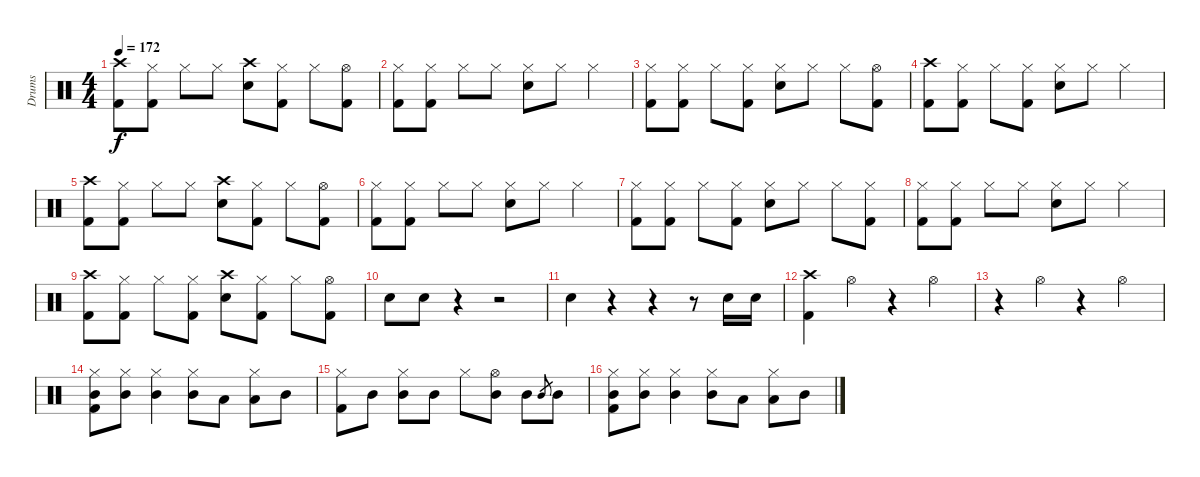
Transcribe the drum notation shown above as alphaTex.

\track ("Drums" "Drums") {instrument percussion}
\staff {score}
\articulation defaults
\ts (4 4)
\tempo 172
\clef neutral
\ks c
("Crash high (hit)" "Kick (hit) 2").8{dy f} ("Hi-Hat (closed)" "Kick (hit) 2").8 "Hi-Hat (closed)".8 "Hi-Hat (closed)".8 ("Crash high (hit)" "Electric Snare (hit)").8 ("Hi-Hat (closed)" "Kick (hit) 2").8 "Hi-Hat (closed)".8 ("Hi-Hat (open)" "Kick (hit) 2").8 |
("Hi-Hat (closed)" "Kick (hit) 2").8 ("Hi-Hat (closed)" "Kick (hit) 2").8 "Hi-Hat (closed)".8 "Hi-Hat (closed)".8 ("Hi-Hat (closed)" "Electric Snare (hit)").8 "Hi-Hat (closed)".8 "Hi-Hat (closed)".4 |
("Hi-Hat (closed)" "Kick (hit) 2").8 ("Hi-Hat (closed)" "Kick (hit) 2").8 "Hi-Hat (closed)".8 ("Hi-Hat (closed)" "Kick (hit) 2").8 ("Hi-Hat (closed)" "Electric Snare (hit)").8 "Hi-Hat (closed)".8 "Hi-Hat (closed)".8 ("Hi-Hat (open)" "Kick (hit) 2").8 |
("Crash high (hit)" "Kick (hit) 2").8 ("Hi-Hat (closed)" "Kick (hit) 2").8 "Hi-Hat (closed)".8 ("Hi-Hat (closed)" "Kick (hit) 2").8 ("Hi-Hat (closed)" "Electric Snare (hit)").8 "Hi-Hat (closed)".8 "Hi-Hat (closed)".4 |
("Crash high (hit)" "Kick (hit) 2").8 ("Hi-Hat (closed)" "Kick (hit) 2").8 "Hi-Hat (closed)".8 "Hi-Hat (closed)".8 ("Crash high (hit)" "Electric Snare (hit)").8 ("Hi-Hat (closed)" "Kick (hit) 2").8 "Hi-Hat (closed)".8 ("Hi-Hat (open)" "Kick (hit) 2").8 |
("Hi-Hat (closed)" "Kick (hit) 2").8 ("Hi-Hat (closed)" "Kick (hit) 2").8 "Hi-Hat (closed)".8 "Hi-Hat (closed)".8 ("Hi-Hat (closed)" "Electric Snare (hit)").8 "Hi-Hat (closed)".8 "Hi-Hat (closed)".4 |
("Hi-Hat (closed)" "Kick (hit) 2").8 ("Hi-Hat (closed)" "Kick (hit) 2").8 "Hi-Hat (closed)".8 ("Hi-Hat (closed)" "Kick (hit) 2").8 ("Hi-Hat (closed)" "Electric Snare (hit)").8 "Hi-Hat (closed)".8 "Hi-Hat (closed)".8 ("Hi-Hat (closed)" "Kick (hit) 2").8 |
("Hi-Hat (closed)" "Kick (hit) 2").8 ("Hi-Hat (closed)" "Kick (hit) 2").8 "Hi-Hat (closed)".8 "Hi-Hat (closed)".8 ("Hi-Hat (closed)" "Electric Snare (hit)").8 "Hi-Hat (closed)".8 "Hi-Hat (closed)".4 |
("Crash high (hit)" "Kick (hit) 2").8 ("Hi-Hat (closed)" "Kick (hit) 2").8 "Hi-Hat (closed)".8 ("Hi-Hat (closed)" "Kick (hit) 2").8 ("Crash high (hit)" "Electric Snare (hit)").8 ("Hi-Hat (closed)" "Kick (hit) 2").8 "Hi-Hat (closed)".8 ("Hi-Hat (open)" "Kick (hit) 2").8 |
"Electric Snare (hit)".8 "Electric Snare (hit)".8 r.4 r.2 |
"Electric Snare (hit)".4 r.4 r.4 r.8 "Electric Snare (hit)".16 "Electric Snare (hit)".16 |
("Crash high (hit)" "Kick (hit) 2").4 "Hi-Hat (open)".4 r.4 "Hi-Hat (open)".4 |
r.4 "Hi-Hat (open)".4 r.4 "Hi-Hat (open)".4 |
("Hi-Hat (closed)" "Mid Tom (hit)" "Kick (hit) 2").8 ("Hi-Hat (closed)" "Mid Tom (hit)").8 ("Hi-Hat (closed)" "Mid Tom (hit)").4 ("Hi-Hat (closed)" "Mid Tom (hit)").8 "Low Tom (hit)".8 ("Hi-Hat (closed)" "Low Tom (hit)").8 "Mid Tom (hit)".8 |
("Hi-Hat (closed)" "Kick (hit) 2").8 "Mid Tom (hit)".8 ("Hi-Hat (closed)" "Mid Tom (hit)").8 "Mid Tom (hit)".8 "Hi-Hat (closed)".8 ("Hi-Hat (open)" "Mid Tom (hit)").8 "Mid Tom (hit)".8 "Mid Tom (hit)".8{gr} "Mid Tom (hit)".8 |
("Hi-Hat (closed)" "Mid Tom (hit)" "Kick (hit) 2").8 ("Hi-Hat (closed)" "Mid Tom (hit)").8 ("Hi-Hat (closed)" "Mid Tom (hit)").4 ("Hi-Hat (closed)" "Mid Tom (hit)").8 "Low Tom (hit)".8 ("Hi-Hat (closed)" "Low Tom (hit)").8 "Mid Tom (hit)".8
